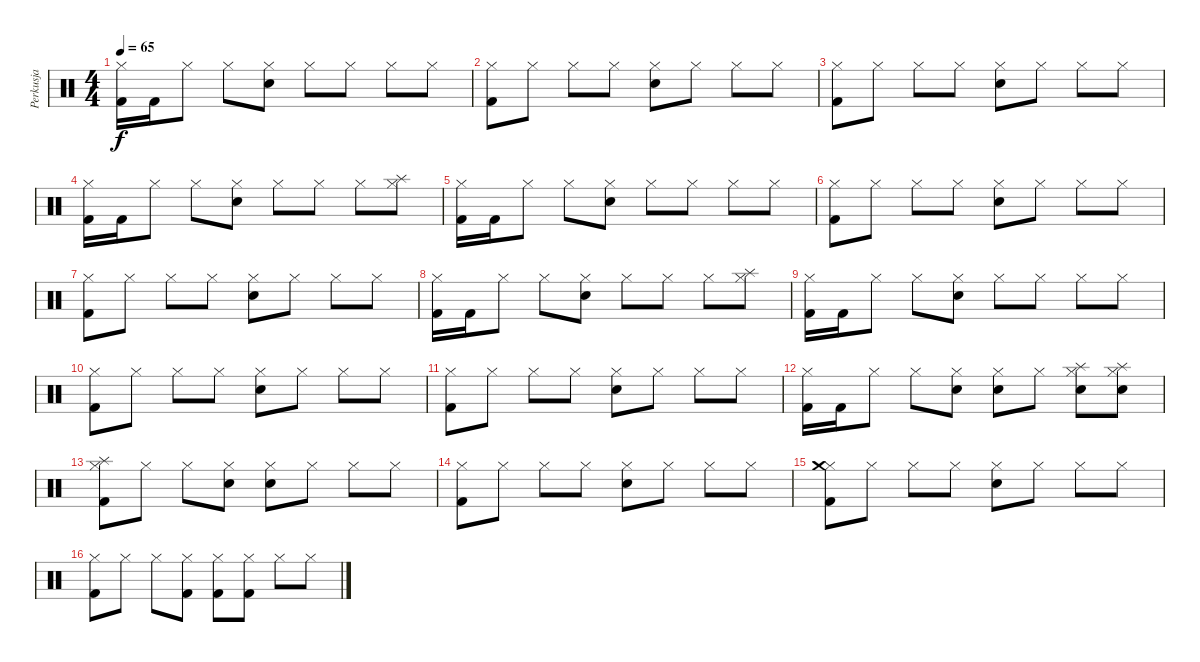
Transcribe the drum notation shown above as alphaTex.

\track ("Perkusja" "Perkusja") {instrument percussion}
\staff {score}
\articulation defaults
\ts (4 4)
\tempo 65
\clef neutral
\ks c
("Kick (hit) 2" "Hi-Hat (closed)").16{dy f} "Kick (hit) 2".16 "Hi-Hat (closed)".8 "Hi-Hat (closed)".8 ("Snare (hit) 2" "Hi-Hat (closed)").8 "Hi-Hat (closed)".8 "Hi-Hat (closed)".8 "Hi-Hat (closed)".8 "Hi-Hat (closed)".8 |
("Kick (hit) 2" "Hi-Hat (closed)").8 "Hi-Hat (closed)".8 "Hi-Hat (closed)".8 "Hi-Hat (closed)".8 ("Snare (hit) 2" "Hi-Hat (closed)").8 "Hi-Hat (closed)".8 "Hi-Hat (closed)".8 "Hi-Hat (closed)".8 |
("Kick (hit) 2" "Hi-Hat (closed)").8 "Hi-Hat (closed)".8 "Hi-Hat (closed)".8 "Hi-Hat (closed)".8 ("Snare (hit) 2" "Hi-Hat (closed)").8 "Hi-Hat (closed)".8 "Hi-Hat (closed)".8 "Hi-Hat (closed)".8 |
("Kick (hit) 2" "Hi-Hat (closed)").16 "Kick (hit) 2".16 "Hi-Hat (closed)".8 "Hi-Hat (closed)".8 ("Snare (hit) 2" "Hi-Hat (closed)").8 "Hi-Hat (closed)".8 "Hi-Hat (closed)".8 "Hi-Hat (closed)".8 ("Splash (hit)" "Hi-Hat (closed)").8 |
("Kick (hit) 2" "Hi-Hat (closed)").16 "Kick (hit) 2".16 "Hi-Hat (closed)".8 "Hi-Hat (closed)".8 ("Snare (hit) 2" "Hi-Hat (closed)").8 "Hi-Hat (closed)".8 "Hi-Hat (closed)".8 "Hi-Hat (closed)".8 "Hi-Hat (closed)".8 |
("Kick (hit) 2" "Hi-Hat (closed)").8 "Hi-Hat (closed)".8 "Hi-Hat (closed)".8 "Hi-Hat (closed)".8 ("Snare (hit) 2" "Hi-Hat (closed)").8 "Hi-Hat (closed)".8 "Hi-Hat (closed)".8 "Hi-Hat (closed)".8 |
("Kick (hit) 2" "Hi-Hat (closed)").8 "Hi-Hat (closed)".8 "Hi-Hat (closed)".8 "Hi-Hat (closed)".8 ("Snare (hit) 2" "Hi-Hat (closed)").8 "Hi-Hat (closed)".8 "Hi-Hat (closed)".8 "Hi-Hat (closed)".8 |
("Kick (hit) 2" "Hi-Hat (closed)").16 "Kick (hit) 2".16 "Hi-Hat (closed)".8 "Hi-Hat (closed)".8 ("Snare (hit) 2" "Hi-Hat (closed)").8 "Hi-Hat (closed)".8 "Hi-Hat (closed)".8 "Hi-Hat (closed)".8 ("Splash (hit)" "Hi-Hat (closed)").8 |
("Kick (hit) 2" "Hi-Hat (closed)").16 "Kick (hit) 2".16 "Hi-Hat (closed)".8 "Hi-Hat (closed)".8 ("Snare (hit) 2" "Hi-Hat (closed)").8 "Hi-Hat (closed)".8 "Hi-Hat (closed)".8 "Hi-Hat (closed)".8 "Hi-Hat (closed)".8 |
("Kick (hit) 2" "Hi-Hat (closed)").8 "Hi-Hat (closed)".8 "Hi-Hat (closed)".8 "Hi-Hat (closed)".8 ("Snare (hit) 2" "Hi-Hat (closed)").8 "Hi-Hat (closed)".8 "Hi-Hat (closed)".8 "Hi-Hat (closed)".8 |
("Kick (hit) 2" "Hi-Hat (closed)").8 "Hi-Hat (closed)".8 "Hi-Hat (closed)".8 "Hi-Hat (closed)".8 ("Snare (hit) 2" "Hi-Hat (closed)").8 "Hi-Hat (closed)".8 "Hi-Hat (closed)".8 "Hi-Hat (closed)".8 |
("Kick (hit) 2" "Hi-Hat (closed)").16 "Kick (hit) 2".16 "Hi-Hat (closed)".8 "Hi-Hat (closed)".8 ("Snare (hit) 2" "Hi-Hat (closed)").8 ("Snare (hit) 2" "Hi-Hat (closed)").8 "Hi-Hat (closed)".8 ("Snare (hit) 2" "Hi-Hat (closed)" "Splash (hit)").8 ("Snare (hit) 2" "Hi-Hat (closed)" "Splash (hit)").8 |
("Kick (hit) 2" "Hi-Hat (closed)" "Splash (hit)").8 "Hi-Hat (closed)".8 "Hi-Hat (closed)".8 ("Snare (hit) 2" "Hi-Hat (closed)").8 ("Snare (hit) 2" "Hi-Hat (closed)").8 "Hi-Hat (closed)".8 "Hi-Hat (closed)".8 "Hi-Hat (closed)".8 |
("Kick (hit) 2" "Hi-Hat (closed)").8 "Hi-Hat (closed)".8 "Hi-Hat (closed)".8 "Hi-Hat (closed)".8 ("Snare (hit) 2" "Hi-Hat (closed)").8 "Hi-Hat (closed)".8 "Hi-Hat (closed)".8 "Hi-Hat (closed)".8 |
("Kick (hit) 2" "Hi-Hat (closed)" "Crash medium (hit)").8 "Hi-Hat (closed)".8 "Hi-Hat (closed)".8 "Hi-Hat (closed)".8 ("Snare (hit) 2" "Hi-Hat (closed)").8 "Hi-Hat (closed)".8 "Hi-Hat (closed)".8 "Hi-Hat (closed)".8 |
("Kick (hit) 2" "Hi-Hat (closed)").8 "Hi-Hat (closed)".8 "Hi-Hat (closed)".8 ("Kick (hit) 2" "Hi-Hat (closed)").8 ("Kick (hit) 2" "Hi-Hat (closed)").8 ("Kick (hit) 2" "Hi-Hat (closed)").8 "Hi-Hat (closed)".8 "Hi-Hat (closed)".8
